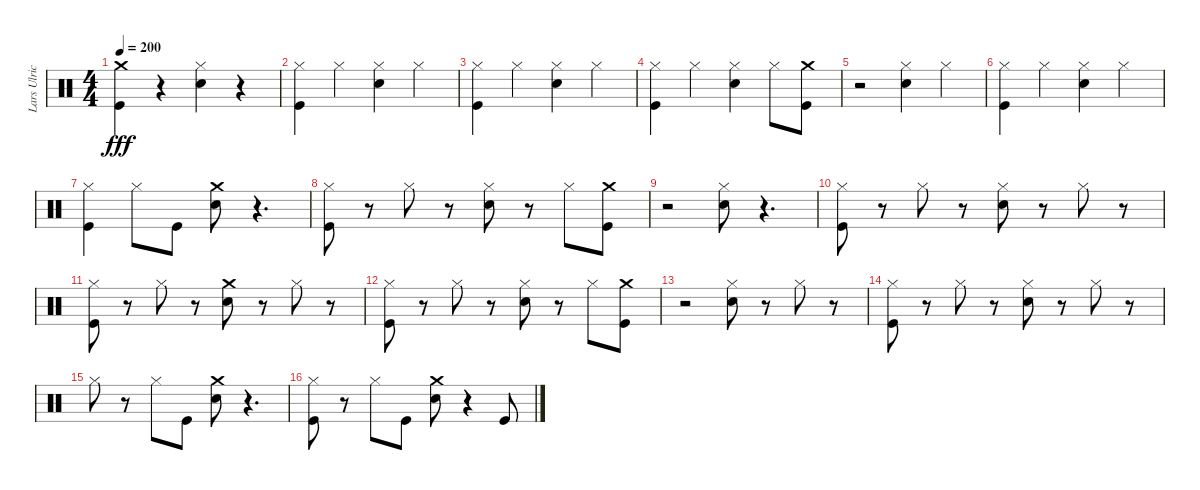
\track ("Lars Ulrich" "Lars Ulric") {instrument percussion}
\staff {score}
\articulation defaults
\ts (4 4)
\tempo 200
\clef neutral
\ks c
("Crash medium (hit)" "Kick (hit)").4{dy fff} r.4 ("Hi-Hat (closed)" "Snare (hit) 2").4 r.4 |
("Hi-Hat (closed)" "Kick (hit)").4 "Hi-Hat (closed)".4 ("Snare (hit) 2" "Hi-Hat (closed)").4 "Hi-Hat (closed)".4 |
("Hi-Hat (closed)" "Kick (hit)").4 "Hi-Hat (closed)".4 ("Snare (hit) 2" "Hi-Hat (closed)").4 "Hi-Hat (closed)".4 |
("Hi-Hat (closed)" "Kick (hit)").4 "Hi-Hat (closed)".4 ("Snare (hit) 2" "Hi-Hat (closed)").4 "Hi-Hat (closed)".8 ("Crash medium (hit)" "Kick (hit)").8 |
r.2 ("Hi-Hat (closed)" "Snare (hit) 2").4 "Hi-Hat (closed)".4 |
("Hi-Hat (closed)" "Kick (hit)").4 "Hi-Hat (closed)".4 ("Snare (hit) 2" "Hi-Hat (closed)").4 "Hi-Hat (closed)".4 |
("Hi-Hat (closed)" "Kick (hit)").4 "Hi-Hat (closed)".8 "Kick (hit)".8 ("Crash medium (hit)" "Snare (hit) 2").8 r.4{d} |
("Hi-Hat (closed)" "Kick (hit)").8 r.8 "Hi-Hat (closed)".8 r.8 ("Snare (hit) 2" "Hi-Hat (closed)").8 r.8 "Hi-Hat (closed)".8 ("Crash medium (hit)" "Kick (hit)").8 |
r.2 ("Hi-Hat (closed)" "Snare (hit) 2").8 r.4{d} |
("Hi-Hat (closed)" "Kick (hit)").8 r.8 "Hi-Hat (closed)".8 r.8 ("Snare (hit) 2" "Hi-Hat (closed)").8 r.8 "Hi-Hat (closed)".8 r.8 |
("Hi-Hat (closed)" "Kick (hit)").8 r.8 "Hi-Hat (closed)".8 r.8 ("Crash medium (hit)" "Snare (hit) 2").8 r.8 "Hi-Hat (closed)".8 r.8 |
("Hi-Hat (closed)" "Kick (hit)").8 r.8 "Hi-Hat (closed)".8 r.8 ("Hi-Hat (closed)" "Snare (hit) 2").8 r.8 "Hi-Hat (closed)".8 ("Crash medium (hit)" "Kick (hit)").8 |
r.2 ("Hi-Hat (closed)" "Snare (hit) 2").8 r.8 "Hi-Hat (closed)".8 r.8 |
("Kick (hit)" "Hi-Hat (closed)").8 r.8 "Hi-Hat (closed)".8 r.8 ("Snare (hit) 2" "Hi-Hat (closed)").8 r.8 "Hi-Hat (closed)".8 r.8 |
"Hi-Hat (closed)".8 r.8 "Hi-Hat (closed)".8 "Kick (hit)".8 ("Crash medium (hit)" "Snare (hit) 2").8 r.4{d} |
("Kick (hit)" "Hi-Hat (closed)").8 r.8 "Hi-Hat (closed)".8 "Kick (hit)".8 ("Crash medium (hit)" "Snare (hit) 2").8 r.4 "Kick (hit)".8
